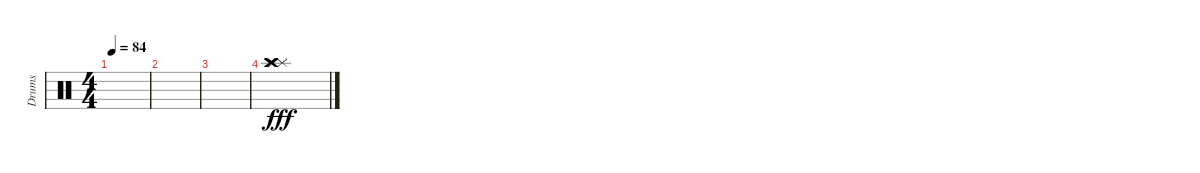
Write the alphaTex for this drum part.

\track ("Drums" "Drums") {instrument percussion}
\staff {score}
\articulation defaults
\ts (4 4)
\tempo 84
\clef neutral
\ks c
|
|
|
("Splash (hit)" "Splash (hit)" "Crash high (hit)" "Crash high (hit)").1{dy fff}
